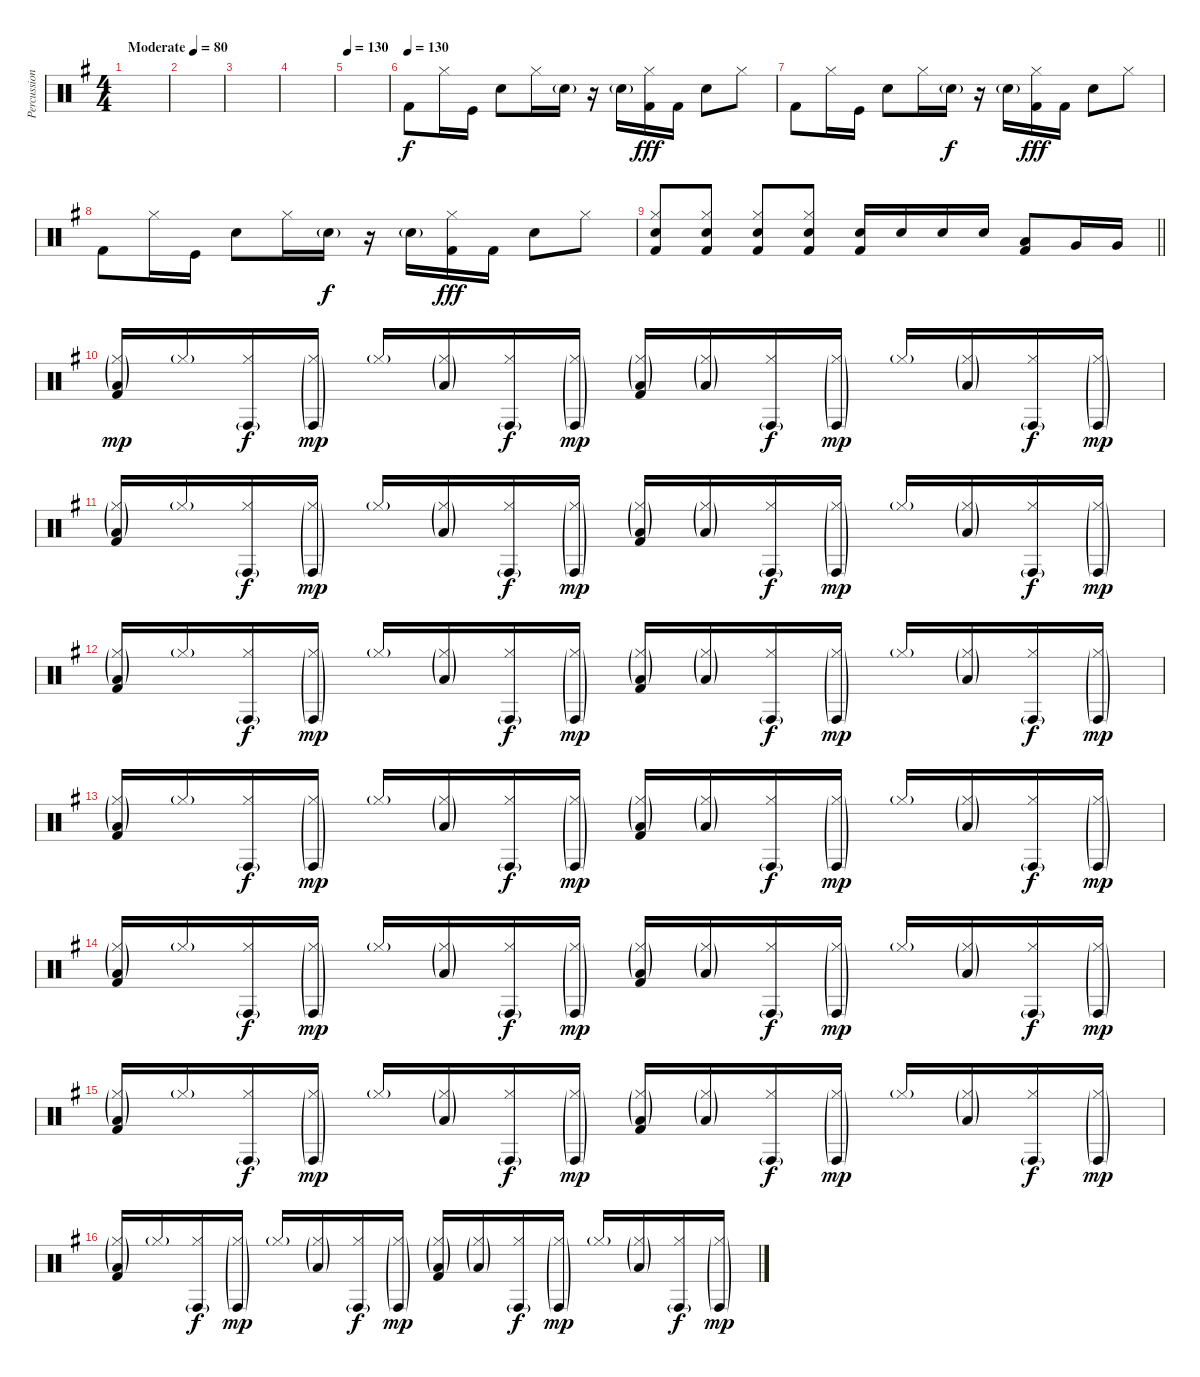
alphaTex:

\track ("Percussion" "Percussion") {instrument percussion}
\staff {score}
\articulation defaults
\ts (4 4)
\tempo (80 "Moderate")
\clef neutral
\ks eminor
|
|
|
|
\tempo 130
|
\tempo (130)
"Kick (hit) 2".8 "Hi-Hat (closed)".16 "Kick (hit)".16 "Electric Snare (hit)".8 "Hi-Hat (closed)".16 "Electric Snare (hit)"{g}.16{dy f} r.16 "Electric Snare (hit)"{g}.16 ("Hi-Hat (closed)" "Kick (hit) 2").16{dy fff} "Kick (hit) 2".16 "Electric Snare (hit)".8 "Hi-Hat (closed)".8 |
"Kick (hit) 2".8 "Hi-Hat (closed)".16 "Kick (hit)".16 "Electric Snare (hit)".8 "Hi-Hat (closed)".16 "Electric Snare (hit)"{g}.16{dy f} r.16 "Electric Snare (hit)"{g}.16 ("Hi-Hat (closed)" "Kick (hit) 2").16{dy fff} "Kick (hit) 2".16 "Electric Snare (hit)".8 "Hi-Hat (closed)".8 |
"Kick (hit) 2".8 "Hi-Hat (closed)".16 "Kick (hit)".16 "Electric Snare (hit)".8 "Hi-Hat (closed)".16 "Electric Snare (hit)"{g}.16{dy f} r.16 "Electric Snare (hit)"{g}.16 ("Hi-Hat (closed)" "Kick (hit) 2").16{dy fff} "Kick (hit) 2".16 "Electric Snare (hit)".8 "Hi-Hat (closed)".8 |
\barLineRight lightlight
("Hi-Hat (closed)" "Electric Snare (hit)" "Kick (hit) 2").8 ("Hi-Hat (closed)" "Electric Snare (hit)" "Kick (hit) 2").8 ("Hi-Hat (closed)" "Electric Snare (hit)" "Kick (hit) 2").8 ("Hi-Hat (closed)" "Electric Snare (hit)" "Kick (hit) 2").8 ("Electric Snare (hit)" "Kick (hit) 2").16 "Electric Snare (hit)".16 "Electric Snare (hit)".16 "Electric Snare (hit)".16 ("Low Tom (hit)" "Kick (hit) 2").8 "Very Low Tom (hit)".16 "Very Low Tom (hit)".16 |
("Hi-Hat (closed)"{g} "Low Tom (hit)"{g} "Kick (hit) 2").16{dy mp} "Hi-Hat (closed)"{g}.16 ("Hi-Hat (closed)" "Conga high (hit)"{g}).16{dy f} ("Hi-Hat (closed)"{g} "Conga high (hit)"{g}).16{dy mp} "Hi-Hat (closed)"{g}.16 ("Hi-Hat (closed)"{g} "Low Tom (hit)"{g}).16 ("Hi-Hat (closed)" "Conga high (hit)"{g}).16{dy f} ("Hi-Hat (closed)"{g} "Conga high (hit)"{g}).16{dy mp} ("Hi-Hat (closed)"{g} "Low Tom (hit)"{g} "Kick (hit) 2").16 ("Hi-Hat (closed)"{g} "Low Tom (hit)"{g}).16 ("Hi-Hat (closed)" "Conga high (hit)"{g}).16{dy f} ("Hi-Hat (closed)"{g} "Conga high (hit)"{g}).16{dy mp} "Hi-Hat (closed)"{g}.16 ("Hi-Hat (closed)"{g} "Low Tom (hit)"{g}).16 ("Hi-Hat (closed)" "Conga high (hit)"{g}).16{dy f} ("Hi-Hat (closed)"{g} "Conga high (hit)"{g}).16{dy mp} |
("Hi-Hat (closed)"{g} "Low Tom (hit)"{g} "Kick (hit) 2").16 "Hi-Hat (closed)"{g}.16 ("Hi-Hat (closed)" "Conga high (hit)"{g}).16{dy f} ("Hi-Hat (closed)"{g} "Conga high (hit)"{g}).16{dy mp} "Hi-Hat (closed)"{g}.16 ("Hi-Hat (closed)"{g} "Low Tom (hit)"{g}).16 ("Hi-Hat (closed)" "Conga high (hit)"{g}).16{dy f} ("Hi-Hat (closed)"{g} "Conga high (hit)"{g}).16{dy mp} ("Hi-Hat (closed)"{g} "Low Tom (hit)"{g} "Kick (hit) 2").16 ("Hi-Hat (closed)"{g} "Low Tom (hit)"{g}).16 ("Hi-Hat (closed)" "Conga high (hit)"{g}).16{dy f} ("Hi-Hat (closed)"{g} "Conga high (hit)"{g}).16{dy mp} "Hi-Hat (closed)"{g}.16 ("Hi-Hat (closed)"{g} "Low Tom (hit)"{g}).16 ("Hi-Hat (closed)" "Conga high (hit)"{g}).16{dy f} ("Hi-Hat (closed)"{g} "Conga high (hit)"{g}).16{dy mp} |
("Hi-Hat (closed)"{g} "Low Tom (hit)"{g} "Kick (hit) 2").16 "Hi-Hat (closed)"{g}.16 ("Hi-Hat (closed)" "Conga high (hit)"{g}).16{dy f} ("Hi-Hat (closed)"{g} "Conga high (hit)"{g}).16{dy mp} "Hi-Hat (closed)"{g}.16 ("Hi-Hat (closed)"{g} "Low Tom (hit)"{g}).16 ("Hi-Hat (closed)" "Conga high (hit)"{g}).16{dy f} ("Hi-Hat (closed)"{g} "Conga high (hit)"{g}).16{dy mp} ("Hi-Hat (closed)"{g} "Low Tom (hit)"{g} "Kick (hit) 2").16 ("Hi-Hat (closed)"{g} "Low Tom (hit)"{g}).16 ("Hi-Hat (closed)" "Conga high (hit)"{g}).16{dy f} ("Hi-Hat (closed)"{g} "Conga high (hit)"{g}).16{dy mp} "Hi-Hat (closed)"{g}.16 ("Hi-Hat (closed)"{g} "Low Tom (hit)"{g}).16 ("Hi-Hat (closed)" "Conga high (hit)"{g}).16{dy f} ("Hi-Hat (closed)"{g} "Conga high (hit)"{g}).16{dy mp} |
("Hi-Hat (closed)"{g} "Low Tom (hit)"{g} "Kick (hit) 2").16 "Hi-Hat (closed)"{g}.16 ("Hi-Hat (closed)" "Conga high (hit)"{g}).16{dy f} ("Hi-Hat (closed)"{g} "Conga high (hit)"{g}).16{dy mp} "Hi-Hat (closed)"{g}.16 ("Hi-Hat (closed)"{g} "Low Tom (hit)"{g}).16 ("Hi-Hat (closed)" "Conga high (hit)"{g}).16{dy f} ("Hi-Hat (closed)"{g} "Conga high (hit)"{g}).16{dy mp} ("Hi-Hat (closed)"{g} "Low Tom (hit)"{g} "Kick (hit) 2").16 ("Hi-Hat (closed)"{g} "Low Tom (hit)"{g}).16 ("Hi-Hat (closed)" "Conga high (hit)"{g}).16{dy f} ("Hi-Hat (closed)"{g} "Conga high (hit)"{g}).16{dy mp} "Hi-Hat (closed)"{g}.16 ("Hi-Hat (closed)"{g} "Low Tom (hit)"{g}).16 ("Hi-Hat (closed)" "Conga high (hit)"{g}).16{dy f} ("Hi-Hat (closed)"{g} "Conga high (hit)"{g}).16{dy mp} |
("Hi-Hat (closed)"{g} "Low Tom (hit)"{g} "Kick (hit) 2").16 "Hi-Hat (closed)"{g}.16 ("Hi-Hat (closed)" "Conga high (hit)"{g}).16{dy f} ("Hi-Hat (closed)"{g} "Conga high (hit)"{g}).16{dy mp} "Hi-Hat (closed)"{g}.16 ("Hi-Hat (closed)"{g} "Low Tom (hit)"{g}).16 ("Hi-Hat (closed)" "Conga high (hit)"{g}).16{dy f} ("Hi-Hat (closed)"{g} "Conga high (hit)"{g}).16{dy mp} ("Hi-Hat (closed)"{g} "Low Tom (hit)"{g} "Kick (hit) 2").16 ("Hi-Hat (closed)"{g} "Low Tom (hit)"{g}).16 ("Hi-Hat (closed)" "Conga high (hit)"{g}).16{dy f} ("Hi-Hat (closed)"{g} "Conga high (hit)"{g}).16{dy mp} "Hi-Hat (closed)"{g}.16 ("Hi-Hat (closed)"{g} "Low Tom (hit)"{g}).16 ("Hi-Hat (closed)" "Conga high (hit)"{g}).16{dy f} ("Hi-Hat (closed)"{g} "Conga high (hit)"{g}).16{dy mp} |
("Hi-Hat (closed)"{g} "Low Tom (hit)"{g} "Kick (hit) 2").16 "Hi-Hat (closed)"{g}.16 ("Hi-Hat (closed)" "Conga high (hit)"{g}).16{dy f} ("Hi-Hat (closed)"{g} "Conga high (hit)"{g}).16{dy mp} "Hi-Hat (closed)"{g}.16 ("Hi-Hat (closed)"{g} "Low Tom (hit)"{g}).16 ("Hi-Hat (closed)" "Conga high (hit)"{g}).16{dy f} ("Hi-Hat (closed)"{g} "Conga high (hit)"{g}).16{dy mp} ("Hi-Hat (closed)"{g} "Low Tom (hit)"{g} "Kick (hit) 2").16 ("Hi-Hat (closed)"{g} "Low Tom (hit)"{g}).16 ("Hi-Hat (closed)" "Conga high (hit)"{g}).16{dy f} ("Hi-Hat (closed)"{g} "Conga high (hit)"{g}).16{dy mp} "Hi-Hat (closed)"{g}.16 ("Hi-Hat (closed)"{g} "Low Tom (hit)"{g}).16 ("Hi-Hat (closed)" "Conga high (hit)"{g}).16{dy f} ("Hi-Hat (closed)"{g} "Conga high (hit)"{g}).16{dy mp} |
("Hi-Hat (closed)"{g} "Low Tom (hit)"{g} "Kick (hit) 2").16 "Hi-Hat (closed)"{g}.16 ("Hi-Hat (closed)" "Conga high (hit)"{g}).16{dy f} ("Hi-Hat (closed)"{g} "Conga high (hit)"{g}).16{dy mp} "Hi-Hat (closed)"{g}.16 ("Hi-Hat (closed)"{g} "Low Tom (hit)"{g}).16 ("Hi-Hat (closed)" "Conga high (hit)"{g}).16{dy f} ("Hi-Hat (closed)"{g} "Conga high (hit)"{g}).16{dy mp} ("Hi-Hat (closed)"{g} "Low Tom (hit)"{g} "Kick (hit) 2").16 ("Hi-Hat (closed)"{g} "Low Tom (hit)"{g}).16 ("Hi-Hat (closed)" "Conga high (hit)"{g}).16{dy f} ("Hi-Hat (closed)"{g} "Conga high (hit)"{g}).16{dy mp} "Hi-Hat (closed)"{g}.16 ("Hi-Hat (closed)"{g} "Low Tom (hit)"{g}).16 ("Hi-Hat (closed)" "Conga high (hit)"{g}).16{dy f} ("Hi-Hat (closed)"{g} "Conga high (hit)"{g}).16{dy mp}
